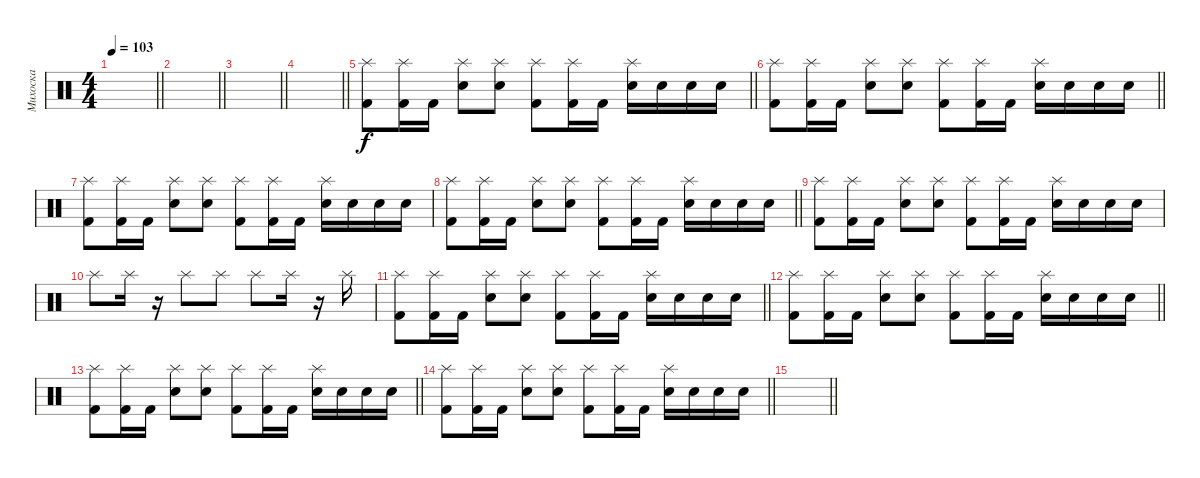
\track ("Михоска" "Михоска") {instrument percussion}
\staff {score}
\articulation defaults
\ts (4 4)
\tempo 103
\clef neutral
\barLineRight lightlight
\ks c
|
\barLineRight lightlight
|
\barLineRight lightlight
|
\barLineRight lightlight
|
\barLineRight lightlight
("Splash (hit)" "Kick (hit) 2").8 ("Splash (hit)" "Kick (hit) 2").16 "Kick (hit) 2".16 ("Splash (hit)" "Snare (hit) 2").8 ("Splash (hit)" "Snare (hit) 2").8 ("Splash (hit)" "Kick (hit) 2").8 ("Splash (hit)" "Kick (hit) 2").16 "Kick (hit) 2".16 ("Splash (hit)" "Snare (hit) 2").16 "Snare (hit) 2".16 "Snare (hit) 2".16 "Snare (hit) 2".16 |
\barLineRight lightlight
("Splash (hit)" "Kick (hit) 2").8 ("Splash (hit)" "Kick (hit) 2").16 "Kick (hit) 2".16 ("Splash (hit)" "Snare (hit) 2").8 ("Splash (hit)" "Snare (hit) 2").8 ("Splash (hit)" "Kick (hit) 2").8 ("Splash (hit)" "Kick (hit) 2").16 "Kick (hit) 2".16 ("Splash (hit)" "Snare (hit) 2").16 "Snare (hit) 2".16 "Snare (hit) 2".16 "Snare (hit) 2".16 |
("Splash (hit)" "Kick (hit) 2").8 ("Splash (hit)" "Kick (hit) 2").16 "Kick (hit) 2".16 ("Splash (hit)" "Snare (hit) 2").8 ("Splash (hit)" "Snare (hit) 2").8 ("Splash (hit)" "Kick (hit) 2").8 ("Splash (hit)" "Kick (hit) 2").16 "Kick (hit) 2".16 ("Splash (hit)" "Snare (hit) 2").16 "Snare (hit) 2".16 "Snare (hit) 2".16 "Snare (hit) 2".16 |
\barLineRight lightlight
("Splash (hit)" "Kick (hit) 2").8 ("Splash (hit)" "Kick (hit) 2").16 "Kick (hit) 2".16 ("Splash (hit)" "Snare (hit) 2").8 ("Splash (hit)" "Snare (hit) 2").8 ("Splash (hit)" "Kick (hit) 2").8 ("Splash (hit)" "Kick (hit) 2").16 "Kick (hit) 2".16 ("Splash (hit)" "Snare (hit) 2").16 "Snare (hit) 2".16 "Snare (hit) 2".16 "Snare (hit) 2".16 |
("Splash (hit)" "Kick (hit) 2").8 ("Splash (hit)" "Kick (hit) 2").16 "Kick (hit) 2".16 ("Splash (hit)" "Snare (hit) 2").8 ("Splash (hit)" "Snare (hit) 2").8 ("Splash (hit)" "Kick (hit) 2").8 ("Splash (hit)" "Kick (hit) 2").16 "Kick (hit) 2".16 ("Splash (hit)" "Snare (hit) 2").16 "Snare (hit) 2".16 "Snare (hit) 2".16 "Snare (hit) 2".16 |
"Splash (hit)".8 "Splash (hit)".16 r.16 "Splash (hit)".8 "Splash (hit)".8 "Splash (hit)".8 "Splash (hit)".16 r.16 "Splash (hit)".16 |
\barLineRight lightlight
("Splash (hit)" "Kick (hit) 2").8 ("Splash (hit)" "Kick (hit) 2").16 "Kick (hit) 2".16 ("Splash (hit)" "Snare (hit) 2").8 ("Splash (hit)" "Snare (hit) 2").8 ("Splash (hit)" "Kick (hit) 2").8 ("Splash (hit)" "Kick (hit) 2").16 "Kick (hit) 2".16 ("Splash (hit)" "Snare (hit) 2").16 "Snare (hit) 2".16 "Snare (hit) 2".16 "Snare (hit) 2".16 |
\barLineRight lightlight
("Splash (hit)" "Kick (hit) 2").8 ("Splash (hit)" "Kick (hit) 2").16 "Kick (hit) 2".16 ("Splash (hit)" "Snare (hit) 2").8 ("Splash (hit)" "Snare (hit) 2").8 ("Splash (hit)" "Kick (hit) 2").8 ("Splash (hit)" "Kick (hit) 2").16 "Kick (hit) 2".16 ("Splash (hit)" "Snare (hit) 2").16 "Snare (hit) 2".16 "Snare (hit) 2".16 "Snare (hit) 2".16 |
\barLineRight lightlight
("Splash (hit)" "Kick (hit) 2").8 ("Splash (hit)" "Kick (hit) 2").16 "Kick (hit) 2".16 ("Splash (hit)" "Snare (hit) 2").8 ("Splash (hit)" "Snare (hit) 2").8 ("Splash (hit)" "Kick (hit) 2").8 ("Splash (hit)" "Kick (hit) 2").16 "Kick (hit) 2".16 ("Splash (hit)" "Snare (hit) 2").16 "Snare (hit) 2".16 "Snare (hit) 2".16 "Snare (hit) 2".16 |
\barLineRight lightlight
("Splash (hit)" "Kick (hit) 2").8 ("Splash (hit)" "Kick (hit) 2").16 "Kick (hit) 2".16 ("Splash (hit)" "Snare (hit) 2").8 ("Splash (hit)" "Snare (hit) 2").8 ("Splash (hit)" "Kick (hit) 2").8 ("Splash (hit)" "Kick (hit) 2").16 "Kick (hit) 2".16 ("Splash (hit)" "Snare (hit) 2").16 "Snare (hit) 2".16 "Snare (hit) 2".16 "Snare (hit) 2".16 |
\barLineRight lightlight
